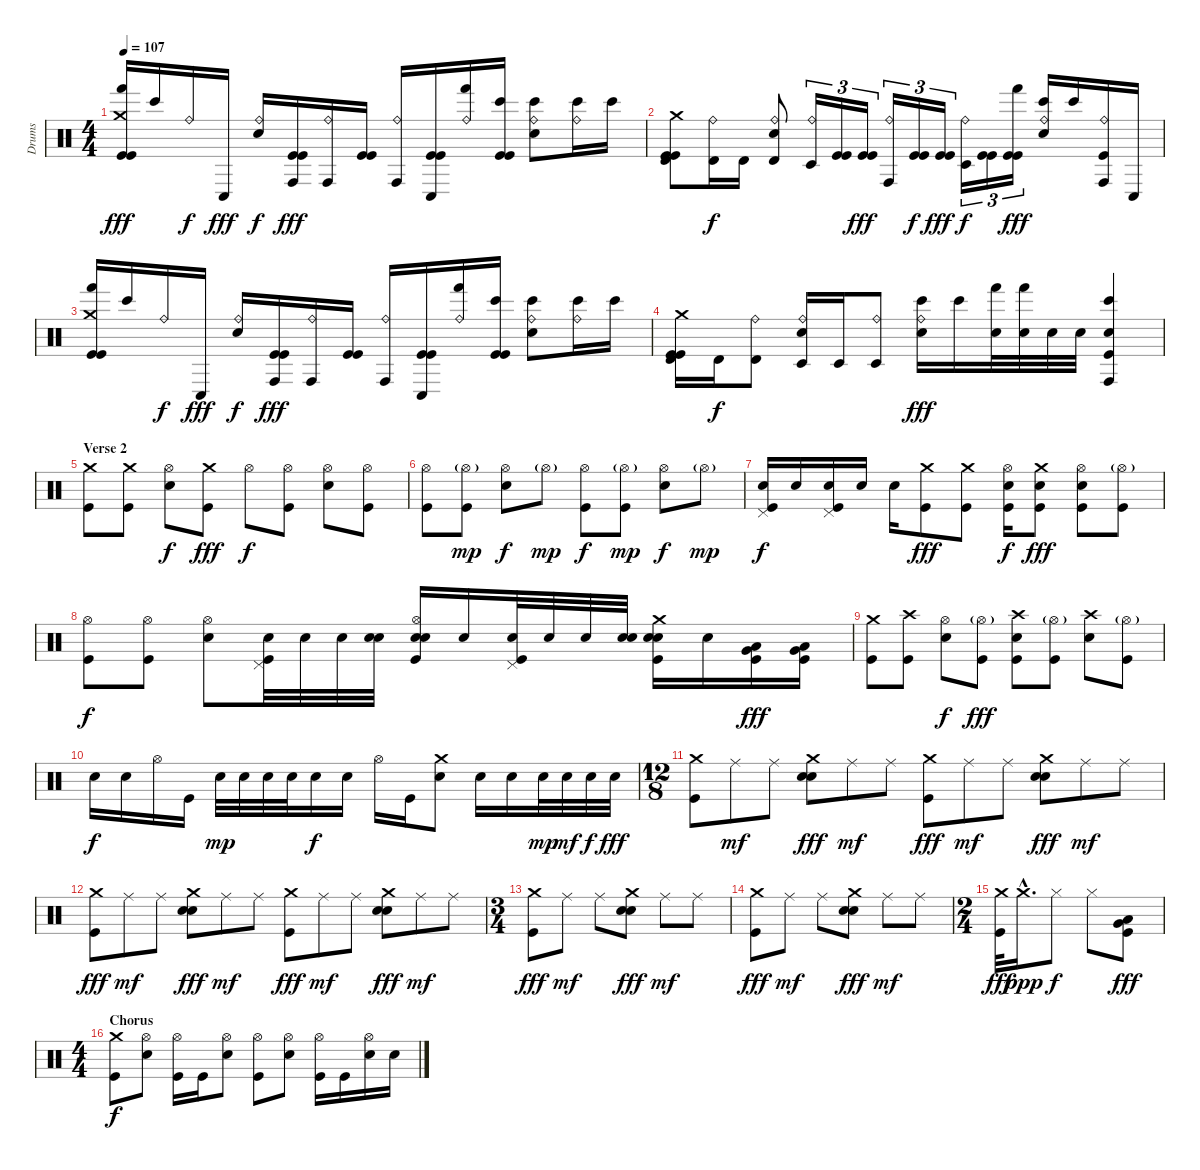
\track ("Drums" "Drums") {instrument percussion}
\staff {score}
\articulation defaults
\ts (4 4)
\tempo 107
\clef neutral
\ks c
("Crash medium (hit)" "Hand (hit)" "Kick (hit)" "Kick (hit)").16{dy fff} "Bongo High (hit)".16 "Ride (bell)".16{dy f} "Conga low (hit)".16{dy fff} ("Ride (bell)" "Electric Snare (hit)").16{dy f} ("Conga high (hit)" "Kick (hit)" "Kick (hit)").16{dy fff} ("Ride (bell)" "Conga high (hit)").16 ("Kick (hit)" "Kick (hit)").16 ("Ride (bell)" "Conga high (hit)").16 ("Conga low (hit)" "Kick (hit)" "Kick (hit)").16 ("Ride (bell)" "Hand (hit)").16 ("Bongo High (hit)" "Kick (hit)" "Kick (hit)").16 ("Ride (bell)" "Bongo High (hit)" "Electric Snare (hit)").8 ("Ride (bell)" "Bongo High (hit)").16 "Bongo High (hit)".16 |
("Crash medium (hit)" "Timbale high (hit)" "Kick (hit)" "Kick (hit)").8 ("Ride (bell)" "Timbale high (hit)").16{dy f} "Timbale high (hit)".16 ("Ride (bell)" "Timbale high (hit)" "Electric Snare (hit)").8 ("Ride (bell)" "Timbale low (hit)").16{tu (3 2)} ("Kick (hit)" "Kick (hit)").16{tu (3 2)} ("Kick (hit)" "Kick (hit)").16{tu (3 2) dy fff} ("Ride (bell)" "Conga high (hit)").16{tu (3 2)} ("Kick (hit)" "Kick (hit)").16{tu (3 2) dy f} ("Kick (hit)" "Kick (hit)").16{tu (3 2) dy fff} ("Ride (bell)" "Timbale low (hit)").16{tu (3 2) dy f} ("Kick (hit)" "Kick (hit)").16{tu (3 2)} ("Hand (hit)" "Kick (hit)" "Kick (hit)").16{tu (3 2) dy fff} ("Ride (bell)" "Bongo High (hit)" "Electric Snare (hit)").16 "Bongo High (hit)".16 ("Ride (bell)" "Conga high (hit)" "Kick (hit)").16 "Conga low (hit)".16 |
("Crash medium (hit)" "Hand (hit)" "Kick (hit)" "Kick (hit)").16 "Bongo High (hit)".16 "Ride (bell)".16{dy f} "Conga low (hit)".16{dy fff} ("Ride (bell)" "Electric Snare (hit)").16{dy f} ("Conga high (hit)" "Kick (hit)" "Kick (hit)").16{dy fff} ("Ride (bell)" "Conga high (hit)").16 ("Kick (hit)" "Kick (hit)").16 ("Ride (bell)" "Conga high (hit)").16 ("Conga low (hit)" "Kick (hit)" "Kick (hit)").16 ("Ride (bell)" "Hand (hit)").16 ("Bongo High (hit)" "Kick (hit)" "Kick (hit)").16 ("Ride (bell)" "Bongo High (hit)" "Electric Snare (hit)").8 ("Ride (bell)" "Bongo High (hit)").16 "Bongo High (hit)".16 |
("Crash medium (hit)" "Timbale high (hit)" "Kick (hit)" "Kick (hit)").16 "Timbale high (hit)".16{dy f} ("Ride (bell)" "Timbale high (hit)").8 ("Ride (bell)" "Timbale low (hit)" "Electric Snare (hit)").16 "Timbale low (hit)".16 ("Ride (bell)" "Timbale low (hit)").8 ("Ride (bell)" "Bongo High (hit)" "Electric Snare (hit)").16{dy fff} "Bongo High (hit)".16 ("Hand (hit)" "Electric Snare (hit)").32 ("Hand (hit)" "Electric Snare (hit)").32 "Electric Snare (hit)".32 "Electric Snare (hit)".32 ("Conga high (hit)" "Bongo High (hit)" "Electric Snare (hit)" "Kick (hit)").4 |
\section ("" "Verse 2")
("Crash medium (hit)" "Kick (hit)").8 ("Crash medium (hit)" "Kick (hit)").8 ("Hi-Hat (open)" "Electric Snare (hit)").8{dy f} ("Crash medium (hit)" "Kick (hit)").8{dy fff} "Hi-Hat (open)".8{dy f} ("Hi-Hat (open)" "Kick (hit)").8 ("Hi-Hat (open)" "Electric Snare (hit)").8 ("Hi-Hat (open)" "Kick (hit)").8 |
("Hi-Hat (open)" "Kick (hit)").8 ("Hi-Hat (open)"{g} "Kick (hit)").8{dy mp} ("Hi-Hat (open)" "Electric Snare (hit)").8{dy f} "Hi-Hat (open)"{g}.8{dy mp} ("Hi-Hat (open)" "Kick (hit)").8{dy f} ("Hi-Hat (open)"{g} "Kick (hit)").8{dy mp} ("Hi-Hat (open)" "Electric Snare (hit)").8{dy f} "Hi-Hat (open)"{g}.8{dy mp} |
("Pedal Hi-Hat (hit)" "Electric Snare (hit)" "Kick (hit)").16{dy f} "Electric Snare (hit)".16 ("Pedal Hi-Hat (hit)" "Electric Snare (hit)" "Kick (hit)").16 "Electric Snare (hit)".16 "Electric Snare (hit)".16 ("Crash medium (hit)" "Kick (hit)").8{dy fff} ("Crash medium (hit)" "Kick (hit)").8 ("Hi-Hat (open)" "Electric Snare (hit)" "Kick (hit)").16{dy f} ("Crash medium (hit)" "Electric Snare (hit)" "Kick (hit)").8{dy fff} ("Hi-Hat (open)" "Electric Snare (hit)" "Kick (hit)").8 ("Hi-Hat (open)"{g} "Kick (hit)").8 |
("Hi-Hat (open)" "Kick (hit)").8{dy f} ("Hi-Hat (open)" "Kick (hit)").8 ("Hi-Hat (open)" "Electric Snare (hit)").8 ("Pedal Hi-Hat (hit)" "Snare (hit) 2" "Kick (hit)").32 "Snare (hit) 2".32 "Snare (hit) 2".32 ("Electric Snare (hit)" "Snare (hit) 2").32 ("Hi-Hat (open)" "Electric Snare (hit)" "Snare (hit) 2" "Kick (hit)").16 "Electric Snare (hit)".16 ("Pedal Hi-Hat (hit)" "Snare (hit) 2" "Kick (hit)").32 "Snare (hit) 2".32 "Snare (hit) 2".32 ("Electric Snare (hit)" "Snare (hit) 2").32 ("Crash medium (hit)" "Electric Snare (hit)" "Snare (hit) 2" "Kick (hit)").16 "Electric Snare (hit)".16 ("Very Low Tom (hit)" "Low Floor Tom (hit)" "Kick (hit)").16{dy fff} ("Very Low Tom (hit)" "Low Floor Tom (hit)" "Kick (hit)").16 |
("Crash medium (hit)" "Kick (hit)").8 ("Crash high (hit)" "Kick (hit)").8 ("Hi-Hat (open)" "Electric Snare (hit)").8{dy f} ("Hi-Hat (open)"{g} "Kick (hit)").8{dy fff} ("Crash high (hit)" "Electric Snare (hit)" "Kick (hit)").8 ("Hi-Hat (open)"{g} "Kick (hit)").8 ("Crash high (hit)" "Electric Snare (hit)").8 ("Hi-Hat (open)"{g} "Kick (hit)").8 |
"Electric Snare (hit)".16{dy f} "Electric Snare (hit)".16 "Hi-Hat (open)".16 "Kick (hit)".16 "Electric Snare (hit)".32{dy mp} "Electric Snare (hit)".32 "Electric Snare (hit)".32 "Electric Snare (hit)".32 "Electric Snare (hit)".16{dy f} "Electric Snare (hit)".16 "Hi-Hat (open)".16 "Kick (hit)".16 ("Crash medium (hit)" "Electric Snare (hit)").8 "Electric Snare (hit)".16 "Electric Snare (hit)".16 "Electric Snare (hit)".32{dy mp} "Electric Snare (hit)".32{dy mf} "Electric Snare (hit)".32{dy f} "Electric Snare (hit)".32{dy fff} |
\ts (12 8)
("Crash medium (hit)" "Kick (hit)").8{volume 16} "Ride (middle)".8{dy mf} "Ride (middle)".8 ("Crash medium (hit)" "Snare (hit) 2" "Electric Snare (hit)").8{dy fff} "Ride (middle)".8{dy mf} "Ride (middle)".8 ("Crash medium (hit)" "Kick (hit)").8{dy fff} "Ride (middle)".8{dy mf} "Ride (middle)".8 ("Crash medium (hit)" "Snare (hit) 2" "Electric Snare (hit)").8{dy fff} "Ride (middle)".8{dy mf} "Ride (middle)".8 |
("Crash medium (hit)" "Kick (hit)").8{dy fff} "Ride (middle)".8{dy mf} "Ride (middle)".8 ("Crash medium (hit)" "Snare (hit) 2" "Electric Snare (hit)").8{dy fff} "Ride (middle)".8{dy mf} "Ride (middle)".8 ("Crash medium (hit)" "Kick (hit)").8{dy fff} "Ride (middle)".8{dy mf} "Ride (middle)".8 ("Crash medium (hit)" "Snare (hit) 2" "Electric Snare (hit)").8{dy fff} "Ride (middle)".8{dy mf} "Ride (middle)".8 |
\ts (3 4)
("Crash medium (hit)" "Kick (hit)").8{dy fff} "Ride (middle)".8{dy mf} "Ride (middle)".8 ("Crash medium (hit)" "Snare (hit) 2" "Electric Snare (hit)").8{dy fff} "Ride (middle)".8{dy mf} "Ride (middle)".8 |
("Crash medium (hit)" "Kick (hit)").8{dy fff} "Ride (middle)".8{dy mf} "Ride (middle)".8 ("Crash medium (hit)" "Snare (hit) 2" "Electric Snare (hit)").8{dy fff} "Ride (middle)".8{dy mf} "Ride (middle)".8 |
\ts (2 4)
("Crash medium (hit)" "Kick (hit)").32{dy fff} "Crash medium (hit)"{hac}.16{d dy ppp} "Hi-Hat (closed)".8{dy f} "Hi-Hat (closed)".8 ("Very Low Tom (hit)" "Low Floor Tom (hit)" "Kick (hit)").8{dy fff} |
\ts (4 4)
\section ("" "Chorus ")
("Crash medium (hit)" "Kick (hit)").8{dy f} ("Hi-Hat (open)" "Electric Snare (hit)").8 ("Hi-Hat (open)" "Kick (hit)").16 "Kick (hit)".16 ("Hi-Hat (open)" "Electric Snare (hit)").8 ("Hi-Hat (open)" "Kick (hit)").8 ("Hi-Hat (open)" "Electric Snare (hit)").8 ("Hi-Hat (open)" "Kick (hit)").16 "Kick (hit)".16 ("Hi-Hat (open)" "Electric Snare (hit)").16 "Electric Snare (hit)".16
